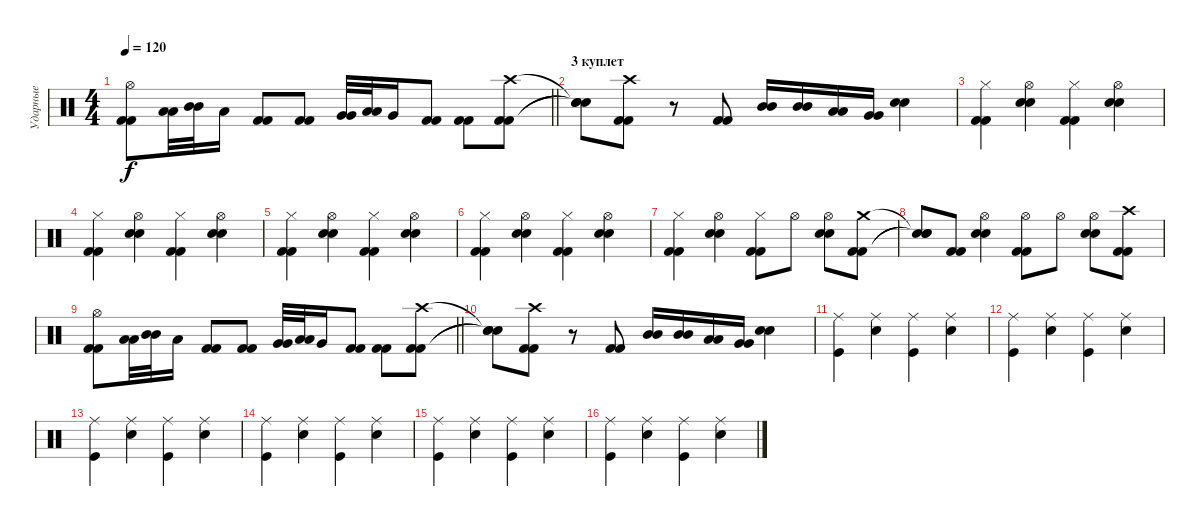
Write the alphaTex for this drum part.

\track ("Ударные" "Ударные") {instrument percussion}
\staff {score}
\articulation defaults
\ts (4 4)
\tempo 120
\clef neutral
\barLineRight lightlight
\ks c
("Hi-Hat (open)" "Kick (hit) 2" "Kick (hit) 2").8{dy f} ("Low Tom (hit)" "Low Tom (hit)").32 ("Mid Tom (hit)" "Mid Tom (hit)").32 "Low Tom (hit)".16 ("Kick (hit) 2" "Kick (hit) 2").8 ("Kick (hit) 2" "Kick (hit) 2").8 ("Very Low Tom (hit)" "Very Low Tom (hit)").32 ("Low Tom (hit)" "Low Tom (hit)").32 "Very Low Tom (hit)".16 ("Kick (hit) 2" "Kick (hit) 2").8 ("Kick (hit) 2" "Kick (hit) 2").8 ("Crash high (hit)" "Kick (hit) 2" "Kick (hit) 2").8 |
\section ("" "3 куплет")
("Snare (hit)"{t} "Snare (hit)"{t} "Snare (hit)"{t}).8 ("Crash high (hit)" "Kick (hit) 2" "Kick (hit) 2").8 r.8 ("Kick (hit) 2" "Kick (hit) 2").8 ("Mid Tom (hit)" "Mid Tom (hit)").16 ("Mid Tom (hit)" "Mid Tom (hit)").16 ("Low Tom (hit)" "Low Tom (hit)").16 ("Very Low Tom (hit)" "Very Low Tom (hit)").16 ("Electric Snare (hit)" "Electric Snare (hit)").4 |
("Hi-Hat (closed)" "Kick (hit) 2" "Kick (hit) 2").4 ("Hi-Hat (open)" "Electric Snare (hit)" "Electric Snare (hit)").4 ("Hi-Hat (closed)" "Kick (hit) 2" "Kick (hit) 2").4 ("Hi-Hat (open)" "Electric Snare (hit)" "Electric Snare (hit)").4 |
("Hi-Hat (closed)" "Kick (hit) 2" "Kick (hit) 2").4 ("Hi-Hat (open)" "Electric Snare (hit)" "Electric Snare (hit)").4 ("Hi-Hat (closed)" "Kick (hit) 2" "Kick (hit) 2").4 ("Hi-Hat (open)" "Electric Snare (hit)" "Electric Snare (hit)").4 |
("Hi-Hat (closed)" "Kick (hit) 2" "Kick (hit) 2").4 ("Hi-Hat (open)" "Electric Snare (hit)" "Electric Snare (hit)").4 ("Hi-Hat (closed)" "Kick (hit) 2" "Kick (hit) 2").4 ("Hi-Hat (open)" "Electric Snare (hit)" "Electric Snare (hit)").4 |
("Hi-Hat (closed)" "Kick (hit) 2" "Kick (hit) 2").4 ("Hi-Hat (open)" "Electric Snare (hit)" "Electric Snare (hit)").4 ("Hi-Hat (closed)" "Kick (hit) 2" "Kick (hit) 2").4 ("Hi-Hat (open)" "Electric Snare (hit)" "Electric Snare (hit)").4 |
("Hi-Hat (closed)" "Kick (hit) 2" "Kick (hit) 2").4 ("Hi-Hat (open)" "Electric Snare (hit)" "Electric Snare (hit)").4 ("Hi-Hat (closed)" "Kick (hit) 2" "Kick (hit) 2").8 "Hi-Hat (open)".8 ("Hi-Hat (open)" "Electric Snare (hit)" "Electric Snare (hit)").8 ("Crash medium (hit)" "Kick (hit) 2" "Kick (hit) 2").8 |
("Snare (hit)"{t} "Snare (hit)"{t} "Snare (hit)"{t}).8 ("Kick (hit) 2" "Kick (hit) 2").8 ("Hi-Hat (open)" "Electric Snare (hit)" "Electric Snare (hit)").4 ("Hi-Hat (open)" "Kick (hit) 2" "Kick (hit) 2").8 "Hi-Hat (open)".8 ("Hi-Hat (open)" "Electric Snare (hit)" "Electric Snare (hit)").8 ("Crash high (hit)" "Kick (hit) 2" "Kick (hit) 2").8 |
\barLineRight lightlight
("Hi-Hat (open)" "Kick (hit) 2" "Kick (hit) 2").8 ("Low Tom (hit)" "Low Tom (hit)").32 ("Mid Tom (hit)" "Mid Tom (hit)").32 "Low Tom (hit)".16 ("Kick (hit) 2" "Kick (hit) 2").8 ("Kick (hit) 2" "Kick (hit) 2").8 ("Very Low Tom (hit)" "Very Low Tom (hit)").32 ("Low Tom (hit)" "Low Tom (hit)").32 "Very Low Tom (hit)".16 ("Kick (hit) 2" "Kick (hit) 2").8 ("Kick (hit) 2" "Kick (hit) 2").8 ("Crash high (hit)" "Kick (hit) 2" "Kick (hit) 2").8 |
("Snare (hit)"{t} "Snare (hit)"{t} "Snare (hit)"{t}).8 ("Crash high (hit)" "Kick (hit) 2" "Kick (hit) 2").8 r.8 ("Kick (hit) 2" "Kick (hit) 2").8 ("Mid Tom (hit)" "Mid Tom (hit)").16 ("Mid Tom (hit)" "Mid Tom (hit)").16 ("Low Tom (hit)" "Low Tom (hit)").16 ("Very Low Tom (hit)" "Very Low Tom (hit)").16 ("Electric Snare (hit)" "Electric Snare (hit)").4 |
("Kick (hit)" "Ride (middle)").4 ("Snare (hit) 2" "Ride (middle)").4 ("Kick (hit)" "Ride (middle)").4 ("Snare (hit) 2" "Ride (middle)").4 |
("Kick (hit)" "Ride (middle)").4 ("Snare (hit) 2" "Ride (middle)").4 ("Kick (hit)" "Ride (middle)").4 ("Snare (hit) 2" "Ride (middle)").4 |
("Kick (hit)" "Ride (middle)").4 ("Snare (hit) 2" "Ride (middle)").4 ("Kick (hit)" "Ride (middle)").4 ("Snare (hit) 2" "Ride (middle)").4 |
("Kick (hit)" "Ride (middle)").4 ("Snare (hit) 2" "Ride (middle)").4 ("Kick (hit)" "Ride (middle)").4 ("Snare (hit) 2" "Ride (middle)").4 |
("Kick (hit)" "Ride (middle)").4 ("Snare (hit) 2" "Ride (middle)").4 ("Kick (hit)" "Ride (middle)").4 ("Snare (hit) 2" "Ride (middle)").4 |
("Kick (hit)" "Ride (middle)").4 ("Snare (hit) 2" "Ride (middle)").4 ("Kick (hit)" "Ride (middle)").4 ("Snare (hit) 2" "Ride (middle)").4
